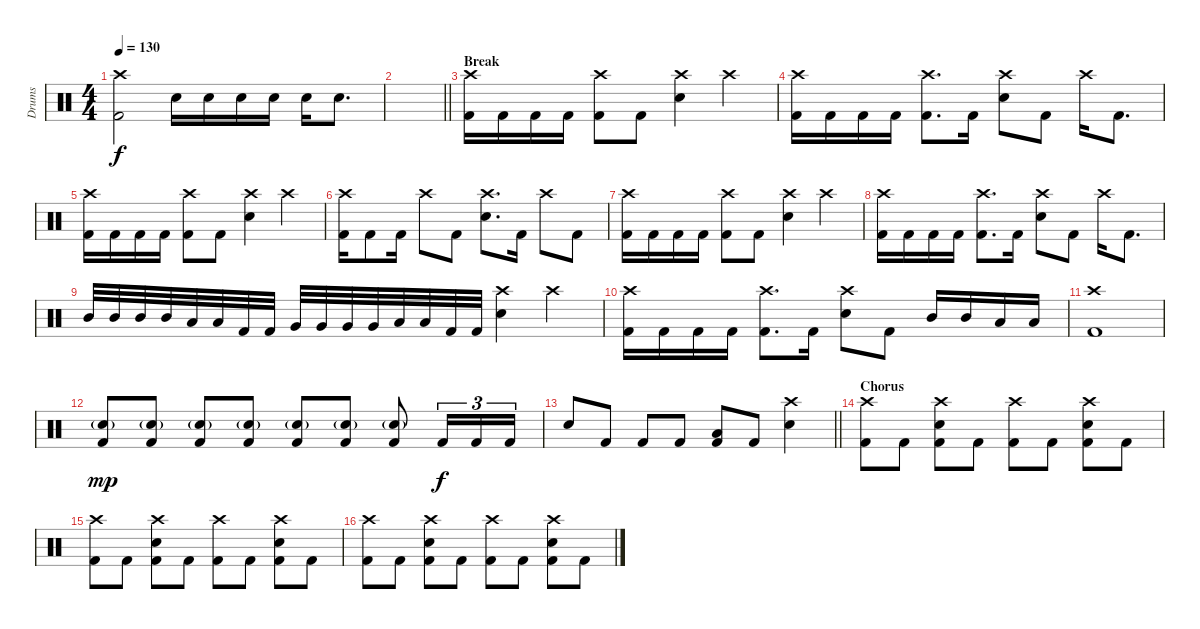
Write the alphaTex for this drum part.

\track ("Drums" "Drums") {instrument percussion}
\staff {score}
\articulation defaults
\ts (4 4)
\tempo 130
\clef neutral
\ks c
("Crash high (hit)" "Kick (hit) 2").2{dy f} "Electric Snare (hit)".16 "Electric Snare (hit)".16 "Electric Snare (hit)".16 "Electric Snare (hit)".16 "Electric Snare (hit)".16 "Electric Snare (hit)".8{d} |
\barLineRight lightlight
|
\section ("" "Break")
("Crash high (hit)" "Kick (hit) 2").16 "Kick (hit) 2".16 "Kick (hit) 2".16 "Kick (hit) 2".16 ("Crash high (hit)" "Kick (hit) 2").8 "Kick (hit) 2".8 ("Crash high (hit)" "Electric Snare (hit)").4 "Crash high (hit)".4 |
("Crash high (hit)" "Kick (hit) 2").16 "Kick (hit) 2".16 "Kick (hit) 2".16 "Kick (hit) 2".16 ("Crash high (hit)" "Kick (hit) 2").8{d} "Kick (hit) 2".16 ("Crash high (hit)" "Electric Snare (hit)").8 "Kick (hit) 2".8 "Crash high (hit)".16 "Kick (hit) 2".8{d} |
("Crash high (hit)" "Kick (hit) 2").16 "Kick (hit) 2".16 "Kick (hit) 2".16 "Kick (hit) 2".16 ("Crash high (hit)" "Kick (hit) 2").8 "Kick (hit) 2".8 ("Crash high (hit)" "Electric Snare (hit)").4 "Crash high (hit)".4 |
("Crash high (hit)" "Kick (hit) 2").16 "Kick (hit) 2".8 "Kick (hit) 2".16 "Crash high (hit)".8 "Kick (hit) 2".8 ("Crash high (hit)" "Electric Snare (hit)").8{d} "Kick (hit) 2".16 "Crash high (hit)".8 "Kick (hit) 2".8 |
("Crash high (hit)" "Kick (hit) 2").16 "Kick (hit) 2".16 "Kick (hit) 2".16 "Kick (hit) 2".16 ("Crash high (hit)" "Kick (hit) 2").8 "Kick (hit) 2".8 ("Crash high (hit)" "Electric Snare (hit)").4 "Crash high (hit)".4 |
("Crash high (hit)" "Kick (hit) 2").16 "Kick (hit) 2".16 "Kick (hit) 2".16 "Kick (hit) 2".16 ("Crash high (hit)" "Kick (hit) 2").8{d} "Kick (hit) 2".16 ("Crash high (hit)" "Electric Snare (hit)").8 "Kick (hit) 2".8 "Crash high (hit)".16 "Kick (hit) 2".8{d} |
"Mid Tom (hit)".32 "Mid Tom (hit)".32 "Mid Tom (hit)".32 "Mid Tom (hit)".32 "Low Tom (hit)".32 "Low Tom (hit)".32 "Kick (hit) 2".32 "Kick (hit) 2".32 "Very Low Tom (hit)".32 "Very Low Tom (hit)".32 "Very Low Tom (hit)".32 "Very Low Tom (hit)".32 "Low Floor Tom (hit)".32 "Low Floor Tom (hit)".32 "Kick (hit) 2".32 "Kick (hit) 2".32 ("Crash high (hit)" "Electric Snare (hit)").4 "Crash high (hit)".4 |
("Crash high (hit)" "Kick (hit) 2").16 "Kick (hit) 2".16 "Kick (hit) 2".16 "Kick (hit) 2".16 ("Crash high (hit)" "Kick (hit) 2").8{d} "Kick (hit) 2".16 ("Crash high (hit)" "Electric Snare (hit)").8 "Kick (hit) 2".8 "Mid Tom (hit)".16 "Mid Tom (hit)".16 "Low Tom (hit)".16 "Low Tom (hit)".16 |
("Crash high (hit)" "Kick (hit) 2").1 |
("Electric Snare (hit)"{g} "Kick (hit) 2").8{dy mp} ("Electric Snare (hit)"{g} "Kick (hit) 2").8 ("Electric Snare (hit)"{g} "Kick (hit) 2").8 ("Electric Snare (hit)"{g} "Kick (hit) 2").8 ("Electric Snare (hit)"{g} "Kick (hit) 2").8 ("Electric Snare (hit)"{g} "Kick (hit) 2").8 ("Electric Snare (hit)"{g} "Kick (hit) 2").8 "Kick (hit) 2".16{tu (3 2) dy f} "Kick (hit) 2".16{tu (3 2)} "Kick (hit) 2".16{tu (3 2)} |
\barLineRight lightlight "Electric Snare (hit)".8 "Kick (hit) 2".8 "Kick (hit) 2".8 "Kick (hit) 2".8
("Low Floor Tom (hit)" "Kick (hit) 2").8 "Kick (hit) 2".8 ("Crash high (hit)" "Electric Snare (hit)").4 |
\section ("" "Chorus")
("Crash high (hit)" "Kick (hit) 2").8 "Kick (hit) 2".8 ("Crash high (hit)" "Electric Snare (hit)" "Kick (hit) 2").8 "Kick (hit) 2".8 ("Crash high (hit)" "Kick (hit) 2").8 "Kick (hit) 2".8 ("Crash high (hit)" "Electric Snare (hit)" "Kick (hit) 2").8 "Kick (hit) 2".8 |
("Crash high (hit)" "Kick (hit) 2").8 "Kick (hit) 2".8 ("Crash high (hit)" "Electric Snare (hit)" "Kick (hit) 2").8 "Kick (hit) 2".8 ("Crash high (hit)" "Kick (hit) 2").8 "Kick (hit) 2".8 ("Crash high (hit)" "Electric Snare (hit)" "Kick (hit) 2").8 "Kick (hit) 2".8 |
("Crash high (hit)" "Kick (hit) 2").8 "Kick (hit) 2".8 ("Crash high (hit)" "Electric Snare (hit)" "Kick (hit) 2").8 "Kick (hit) 2".8 ("Crash high (hit)" "Kick (hit) 2").8 "Kick (hit) 2".8 ("Crash high (hit)" "Electric Snare (hit)" "Kick (hit) 2").8 "Kick (hit) 2".8
